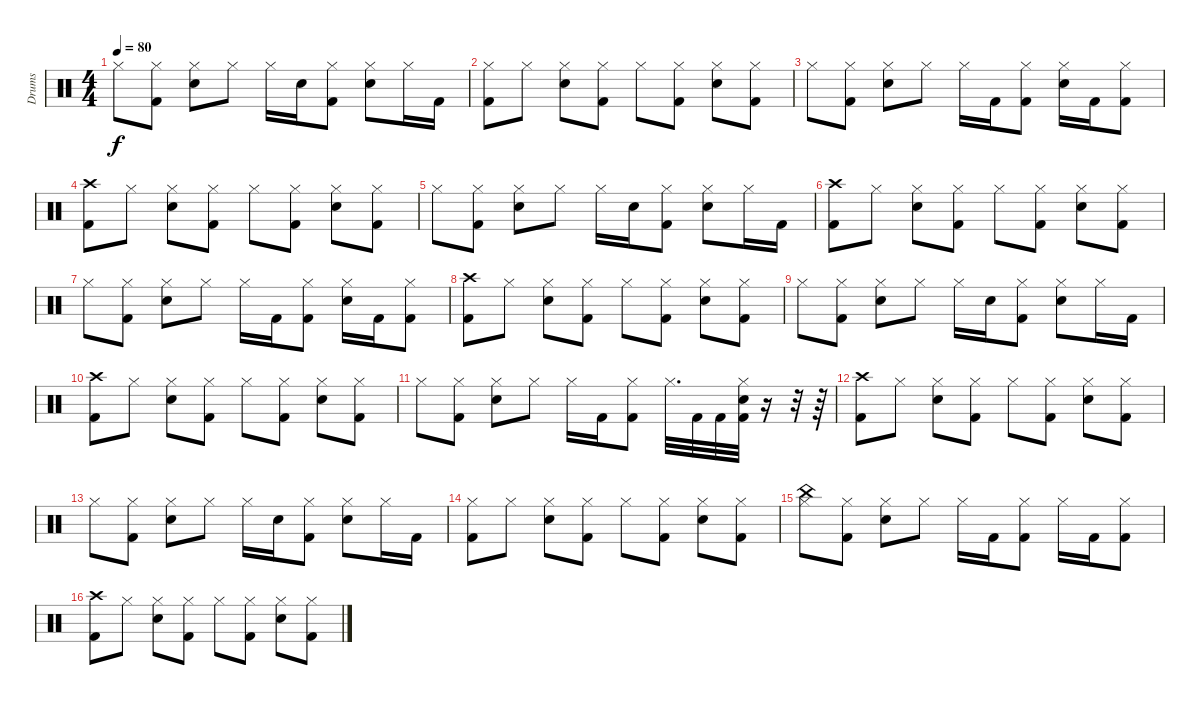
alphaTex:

\track ("Drums         " "Drums     ") {instrument percussion}
\staff {score}
\articulation defaults
\ts (4 4)
\tempo 80
\clef neutral
\ks c "Hi-Hat (closed)".8{dy f}
("Kick (hit) 2" "Hi-Hat (closed)").8 ("Snare (hit) 2" "Hi-Hat (closed)").8 "Hi-Hat (closed)".8 "Hi-Hat (closed)".16 "Snare (hit) 2".16 ("Kick (hit) 2" "Hi-Hat (closed)").8 ("Snare (hit) 2" "Hi-Hat (closed)").8 "Hi-Hat (closed)".16 "Kick (hit) 2".16 |
("Kick (hit) 2" "Hi-Hat (closed)").8 "Hi-Hat (closed)".8 ("Snare (hit) 2" "Hi-Hat (closed)").8 ("Kick (hit) 2" "Hi-Hat (closed)").8 "Hi-Hat (closed)".8 ("Kick (hit) 2" "Hi-Hat (closed)").8 ("Snare (hit) 2" "Hi-Hat (closed)").8 ("Kick (hit) 2" "Hi-Hat (closed)").8 |
"Hi-Hat (closed)".8 ("Kick (hit) 2" "Hi-Hat (closed)").8 ("Snare (hit) 2" "Hi-Hat (closed)").8 "Hi-Hat (closed)".8 "Hi-Hat (closed)".16 "Kick (hit) 2".16 ("Kick (hit) 2" "Hi-Hat (closed)").8 ("Snare (hit) 2" "Hi-Hat (closed)").16 "Kick (hit) 2".16 ("Kick (hit) 2" "Hi-Hat (closed)").8 |
("Kick (hit) 2" "Crash high (hit)").8 "Hi-Hat (closed)".8 ("Snare (hit) 2" "Hi-Hat (closed)").8 ("Kick (hit) 2" "Hi-Hat (closed)").8 "Hi-Hat (closed)".8 ("Kick (hit) 2" "Hi-Hat (closed)").8 ("Snare (hit) 2" "Hi-Hat (closed)").8 ("Kick (hit) 2" "Hi-Hat (closed)").8 |
"Hi-Hat (closed)".8 ("Kick (hit) 2" "Hi-Hat (closed)").8 ("Snare (hit) 2" "Hi-Hat (closed)").8 "Hi-Hat (closed)".8 "Hi-Hat (closed)".16 "Snare (hit) 2".16 ("Kick (hit) 2" "Hi-Hat (closed)").8 ("Snare (hit) 2" "Hi-Hat (closed)").8 "Hi-Hat (closed)".16 "Kick (hit) 2".16 |
("Kick (hit) 2" "Crash high (hit)").8 "Hi-Hat (closed)".8 ("Snare (hit) 2" "Hi-Hat (closed)").8 ("Kick (hit) 2" "Hi-Hat (closed)").8 "Hi-Hat (closed)".8 ("Kick (hit) 2" "Hi-Hat (closed)").8 ("Snare (hit) 2" "Hi-Hat (closed)").8 ("Kick (hit) 2" "Hi-Hat (closed)").8 |
"Hi-Hat (closed)".8 ("Kick (hit) 2" "Hi-Hat (closed)").8 ("Snare (hit) 2" "Hi-Hat (closed)").8 "Hi-Hat (closed)".8 "Hi-Hat (closed)".16 "Kick (hit) 2".16 ("Kick (hit) 2" "Hi-Hat (closed)").8 ("Snare (hit) 2" "Hi-Hat (closed)").16 "Kick (hit) 2".16 ("Kick (hit) 2" "Hi-Hat (closed)").8 |
("Kick (hit) 2" "Crash high (hit)").8 "Hi-Hat (closed)".8 ("Snare (hit) 2" "Hi-Hat (closed)").8 ("Kick (hit) 2" "Hi-Hat (closed)").8 "Hi-Hat (closed)".8 ("Kick (hit) 2" "Hi-Hat (closed)").8 ("Snare (hit) 2" "Hi-Hat (closed)").8 ("Kick (hit) 2" "Hi-Hat (closed)").8 |
"Hi-Hat (closed)".8 ("Kick (hit) 2" "Hi-Hat (closed)").8 ("Snare (hit) 2" "Hi-Hat (closed)").8 "Hi-Hat (closed)".8 "Hi-Hat (closed)".16 "Snare (hit) 2".16 ("Kick (hit) 2" "Hi-Hat (closed)").8 ("Snare (hit) 2" "Hi-Hat (closed)").8 "Hi-Hat (closed)".16 "Kick (hit) 2".16 |
("Kick (hit) 2" "Crash high (hit)").8 "Hi-Hat (closed)".8 ("Snare (hit) 2" "Hi-Hat (closed)").8 ("Kick (hit) 2" "Hi-Hat (closed)").8 "Hi-Hat (closed)".8 ("Kick (hit) 2" "Hi-Hat (closed)").8 ("Snare (hit) 2" "Hi-Hat (closed)").8 ("Kick (hit) 2" "Hi-Hat (closed)").8 |
"Hi-Hat (closed)".8 ("Kick (hit) 2" "Hi-Hat (closed)").8 ("Snare (hit) 2" "Hi-Hat (closed)").8 "Hi-Hat (closed)".8 "Hi-Hat (closed)".16 "Kick (hit) 2".16 ("Kick (hit) 2" "Hi-Hat (closed)").8 "Hi-Hat (closed)".32{d} "Kick (hit) 2".32 "Kick (hit) 2".32 ("Kick (hit) 2" "Snare (hit) 2" "Hi-Hat (closed)").32 r.16 r.32 r.64 |
("Kick (hit) 2" "Crash high (hit)").8 "Hi-Hat (closed)".8 ("Snare (hit) 2" "Hi-Hat (closed)").8 ("Kick (hit) 2" "Hi-Hat (closed)").8 "Hi-Hat (closed)".8 ("Kick (hit) 2" "Hi-Hat (closed)").8 ("Snare (hit) 2" "Hi-Hat (closed)").8 ("Kick (hit) 2" "Hi-Hat (closed)").8 |
"Hi-Hat (closed)".8 ("Kick (hit) 2" "Hi-Hat (closed)").8 ("Snare (hit) 2" "Hi-Hat (closed)").8 "Hi-Hat (closed)".8 "Hi-Hat (closed)".16 "Snare (hit) 2".16 ("Kick (hit) 2" "Hi-Hat (closed)").8 ("Snare (hit) 2" "Hi-Hat (closed)").8 "Hi-Hat (closed)".16 "Kick (hit) 2".16 |
("Kick (hit) 2" "Hi-Hat (closed)").8 "Hi-Hat (closed)".8 ("Snare (hit) 2" "Hi-Hat (closed)").8 ("Kick (hit) 2" "Hi-Hat (closed)").8 "Hi-Hat (closed)".8 ("Kick (hit) 2" "Hi-Hat (closed)").8 ("Snare (hit) 2" "Hi-Hat (closed)").8 ("Kick (hit) 2" "Hi-Hat (closed)").8 |
("Hi-Hat (closed)" "China (hit)").8 ("Kick (hit) 2" "Hi-Hat (closed)").8 ("Snare (hit) 2" "Hi-Hat (closed)").8 "Hi-Hat (closed)".8 "Hi-Hat (closed)".16 "Kick (hit) 2".16 ("Kick (hit) 2" "Hi-Hat (closed)").8 "Hi-Hat (closed)".16 "Kick (hit) 2".16 ("Kick (hit) 2" "Hi-Hat (closed)").8 |
("Kick (hit) 2" "Crash high (hit)").8 "Hi-Hat (closed)".8 ("Snare (hit) 2" "Hi-Hat (closed)").8 ("Kick (hit) 2" "Hi-Hat (closed)").8 "Hi-Hat (closed)".8 ("Kick (hit) 2" "Hi-Hat (closed)").8 ("Snare (hit) 2" "Hi-Hat (closed)").8 ("Kick (hit) 2" "Hi-Hat (closed)").8
